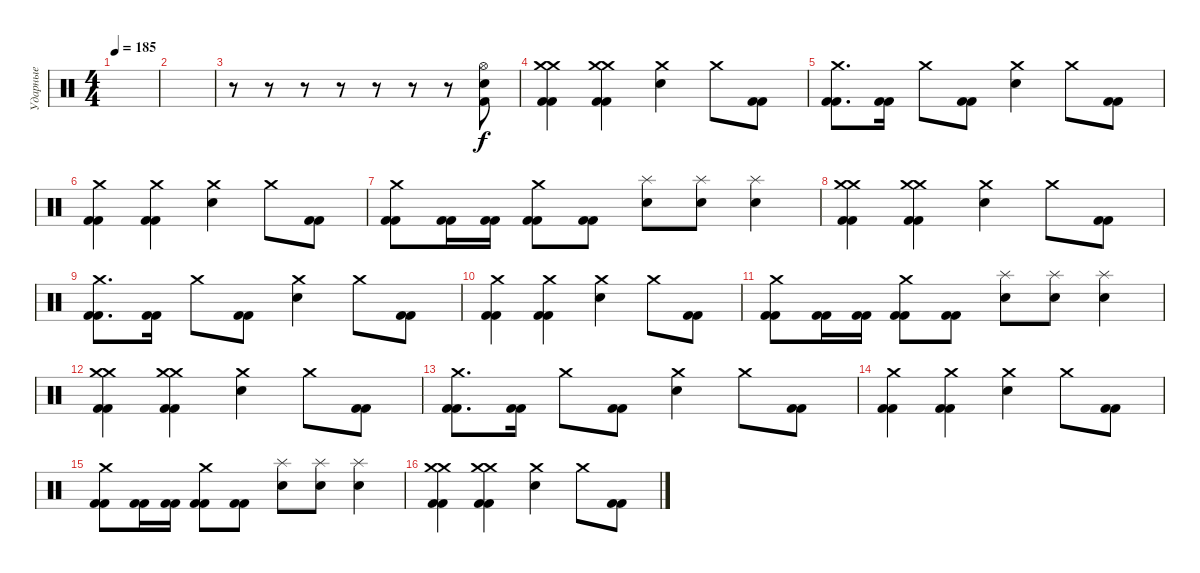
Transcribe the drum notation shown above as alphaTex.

\track ("Ударные" "Ударные") {instrument percussion}
\staff {score}
\articulation defaults
\ts (4 4)
\tempo 185
\clef neutral
\ks c
|
|
r.8 r.8 r.8 r.8 r.8 r.8 r.8 ("Hi-Hat (open)" "Kick (hit) 2" "Electric Snare (hit)").8 |
("Crash medium (hit)" "Crash medium (hit)" "Kick (hit) 2" "Kick (hit) 2").4 ("Crash medium (hit)" "Crash medium (hit)" "Kick (hit) 2" "Kick (hit) 2").4 ("Crash medium (hit)" "Electric Snare (hit)").4 "Crash medium (hit)".8 ("Kick (hit) 2" "Kick (hit) 2").8 |
("Crash medium (hit)" "Kick (hit) 2" "Kick (hit) 2").8{d} ("Kick (hit) 2" "Kick (hit) 2").16 "Crash medium (hit)".8 ("Kick (hit) 2" "Kick (hit) 2").8 ("Crash medium (hit)" "Electric Snare (hit)").4 "Crash medium (hit)".8 ("Kick (hit) 2" "Kick (hit) 2").8 |
("Crash medium (hit)" "Kick (hit) 2" "Kick (hit) 2").4 ("Crash medium (hit)" "Kick (hit) 2" "Kick (hit) 2").4 ("Crash medium (hit)" "Electric Snare (hit)").4 "Crash medium (hit)".8 ("Kick (hit) 2" "Kick (hit) 2").8 |
("Crash medium (hit)" "Kick (hit) 2" "Kick (hit) 2").8 ("Kick (hit) 2" "Kick (hit) 2").16 ("Kick (hit) 2" "Kick (hit) 2").16 ("Crash medium (hit)" "Kick (hit) 2" "Kick (hit) 2").8 ("Kick (hit) 2" "Kick (hit) 2").8 ("Splash (hit)" "Electric Snare (hit)").8 ("Splash (hit)" "Electric Snare (hit)").8 ("Splash (hit)" "Electric Snare (hit)").4 |
("Crash medium (hit)" "Crash medium (hit)" "Kick (hit) 2" "Kick (hit) 2").4 ("Crash medium (hit)" "Crash medium (hit)" "Kick (hit) 2" "Kick (hit) 2").4 ("Crash medium (hit)" "Electric Snare (hit)").4 "Crash medium (hit)".8 ("Kick (hit) 2" "Kick (hit) 2").8 |
("Crash medium (hit)" "Kick (hit) 2" "Kick (hit) 2").8{d} ("Kick (hit) 2" "Kick (hit) 2").16 "Crash medium (hit)".8 ("Kick (hit) 2" "Kick (hit) 2").8 ("Crash medium (hit)" "Electric Snare (hit)").4 "Crash medium (hit)".8 ("Kick (hit) 2" "Kick (hit) 2").8 |
("Crash medium (hit)" "Kick (hit) 2" "Kick (hit) 2").4 ("Crash medium (hit)" "Kick (hit) 2" "Kick (hit) 2").4 ("Crash medium (hit)" "Electric Snare (hit)").4 "Crash medium (hit)".8 ("Kick (hit) 2" "Kick (hit) 2").8 |
("Crash medium (hit)" "Kick (hit) 2" "Kick (hit) 2").8 ("Kick (hit) 2" "Kick (hit) 2").16 ("Kick (hit) 2" "Kick (hit) 2").16 ("Crash medium (hit)" "Kick (hit) 2" "Kick (hit) 2").8 ("Kick (hit) 2" "Kick (hit) 2").8 ("Splash (hit)" "Electric Snare (hit)").8 ("Splash (hit)" "Electric Snare (hit)").8 ("Splash (hit)" "Electric Snare (hit)").4 |
("Crash medium (hit)" "Crash medium (hit)" "Kick (hit) 2" "Kick (hit) 2").4 ("Crash medium (hit)" "Crash medium (hit)" "Kick (hit) 2" "Kick (hit) 2").4 ("Crash medium (hit)" "Electric Snare (hit)").4 "Crash medium (hit)".8 ("Kick (hit) 2" "Kick (hit) 2").8 |
("Crash medium (hit)" "Kick (hit) 2" "Kick (hit) 2").8{d} ("Kick (hit) 2" "Kick (hit) 2").16 "Crash medium (hit)".8 ("Kick (hit) 2" "Kick (hit) 2").8 ("Crash medium (hit)" "Electric Snare (hit)").4 "Crash medium (hit)".8 ("Kick (hit) 2" "Kick (hit) 2").8 |
("Crash medium (hit)" "Kick (hit) 2" "Kick (hit) 2").4 ("Crash medium (hit)" "Kick (hit) 2" "Kick (hit) 2").4 ("Crash medium (hit)" "Electric Snare (hit)").4 "Crash medium (hit)".8 ("Kick (hit) 2" "Kick (hit) 2").8 |
("Crash medium (hit)" "Kick (hit) 2" "Kick (hit) 2").8 ("Kick (hit) 2" "Kick (hit) 2").16 ("Kick (hit) 2" "Kick (hit) 2").16 ("Crash medium (hit)" "Kick (hit) 2" "Kick (hit) 2").8 ("Kick (hit) 2" "Kick (hit) 2").8 ("Splash (hit)" "Electric Snare (hit)").8 ("Splash (hit)" "Electric Snare (hit)").8 ("Splash (hit)" "Electric Snare (hit)").4 |
("Crash medium (hit)" "Crash medium (hit)" "Kick (hit) 2" "Kick (hit) 2").4 ("Crash medium (hit)" "Crash medium (hit)" "Kick (hit) 2" "Kick (hit) 2").4 ("Crash medium (hit)" "Electric Snare (hit)").4 "Crash medium (hit)".8 ("Kick (hit) 2" "Kick (hit) 2").8
